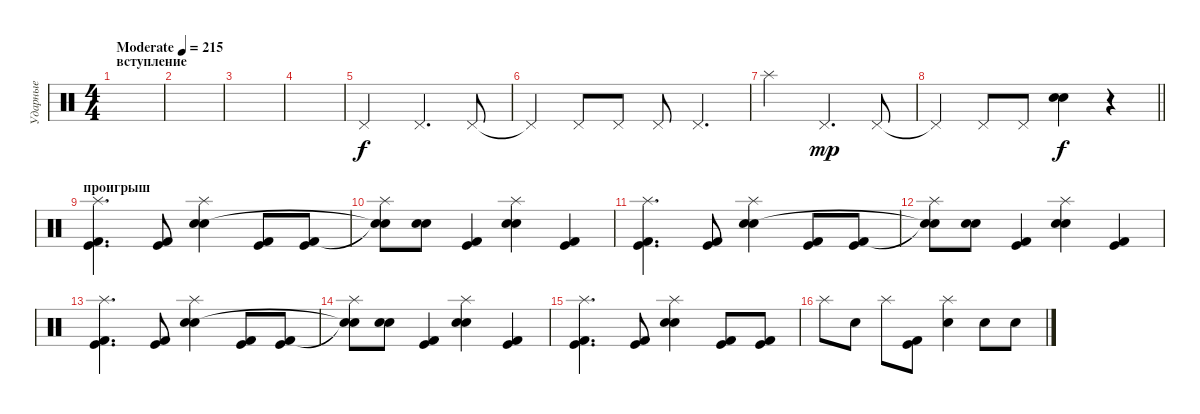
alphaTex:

\track ("Ударные" "Ударные") {instrument percussion}
\staff {score}
\articulation defaults
\ts (4 4)
\section ("" "вступление")
\tempo (215 "Moderate")
\clef neutral
\ks c
|
|
|
|
"Pedal Hi-Hat (hit)".2 "Pedal Hi-Hat (hit)".4{d} "Pedal Hi-Hat (hit)".8 |
"Pedal Hi-Hat (hit)"{t}.4 "Pedal Hi-Hat (hit)".8 "Pedal Hi-Hat (hit)".8 "Pedal Hi-Hat (hit)".8 "Pedal Hi-Hat (hit)".4{d} |
"Splash (hit)".2{dy f} "Pedal Hi-Hat (hit)".4{d dy mp} "Pedal Hi-Hat (hit)".8 |
\barLineRight lightlight "Pedal Hi-Hat (hit)"{t}.4 "Pedal Hi-Hat (hit)".8 "Pedal Hi-Hat (hit)".8
("Electric Snare (hit)" "Snare (hit) 2").4{dy f} r.4 |
\section ("" "проигрыш")
("Splash (hit)" "Kick (hit)" "Kick (hit) 2").4{d} ("Kick (hit)" "Kick (hit) 2").8 ("Splash (hit)" "Electric Snare (hit)" "Snare (hit) 2").4 ("Kick (hit)" "Kick (hit) 2").8 ("Kick (hit)" "Kick (hit) 2").8 |
("Splash (hit)" "Snare (hit)"{t} "Snare (hit)"{t}).8 ("Electric Snare (hit)" "Snare (hit) 2").8 ("Kick (hit)" "Kick (hit) 2").4 ("Splash (hit)" "Electric Snare (hit)" "Snare (hit) 2").4 ("Kick (hit)" "Kick (hit) 2").4 |
("Splash (hit)" "Kick (hit)" "Kick (hit) 2").4{d} ("Kick (hit)" "Kick (hit) 2").8 ("Splash (hit)" "Electric Snare (hit)" "Snare (hit) 2").4 ("Kick (hit)" "Kick (hit) 2").8 ("Kick (hit)" "Kick (hit) 2").8 |
("Splash (hit)" "Snare (hit)"{t} "Snare (hit)"{t}).8 ("Electric Snare (hit)" "Snare (hit) 2").8 ("Kick (hit)" "Kick (hit) 2").4 ("Splash (hit)" "Electric Snare (hit)" "Snare (hit) 2").4 ("Kick (hit)" "Kick (hit) 2").4 |
("Splash (hit)" "Kick (hit)" "Kick (hit) 2").4{d} ("Kick (hit)" "Kick (hit) 2").8 ("Splash (hit)" "Electric Snare (hit)" "Snare (hit) 2").4 ("Kick (hit)" "Kick (hit) 2").8 ("Kick (hit)" "Kick (hit) 2").8 |
("Splash (hit)" "Snare (hit)"{t} "Snare (hit)"{t}).8 ("Electric Snare (hit)" "Snare (hit) 2").8 ("Kick (hit)" "Kick (hit) 2").4 ("Splash (hit)" "Electric Snare (hit)" "Snare (hit) 2").4 ("Kick (hit)" "Kick (hit) 2").4 |
("Splash (hit)" "Kick (hit)" "Kick (hit) 2").4{d} ("Kick (hit)" "Kick (hit) 2").8 ("Splash (hit)" "Electric Snare (hit)" "Snare (hit) 2").4 ("Kick (hit)" "Kick (hit) 2").8 ("Kick (hit)" "Kick (hit) 2").8 |
"Splash (hit)".8 "Electric Snare (hit)".8 "Splash (hit)".8 ("Kick (hit)" "Kick (hit) 2").8 ("Splash (hit)" "Electric Snare (hit)").4 "Electric Snare (hit)".8 "Electric Snare (hit)".8
